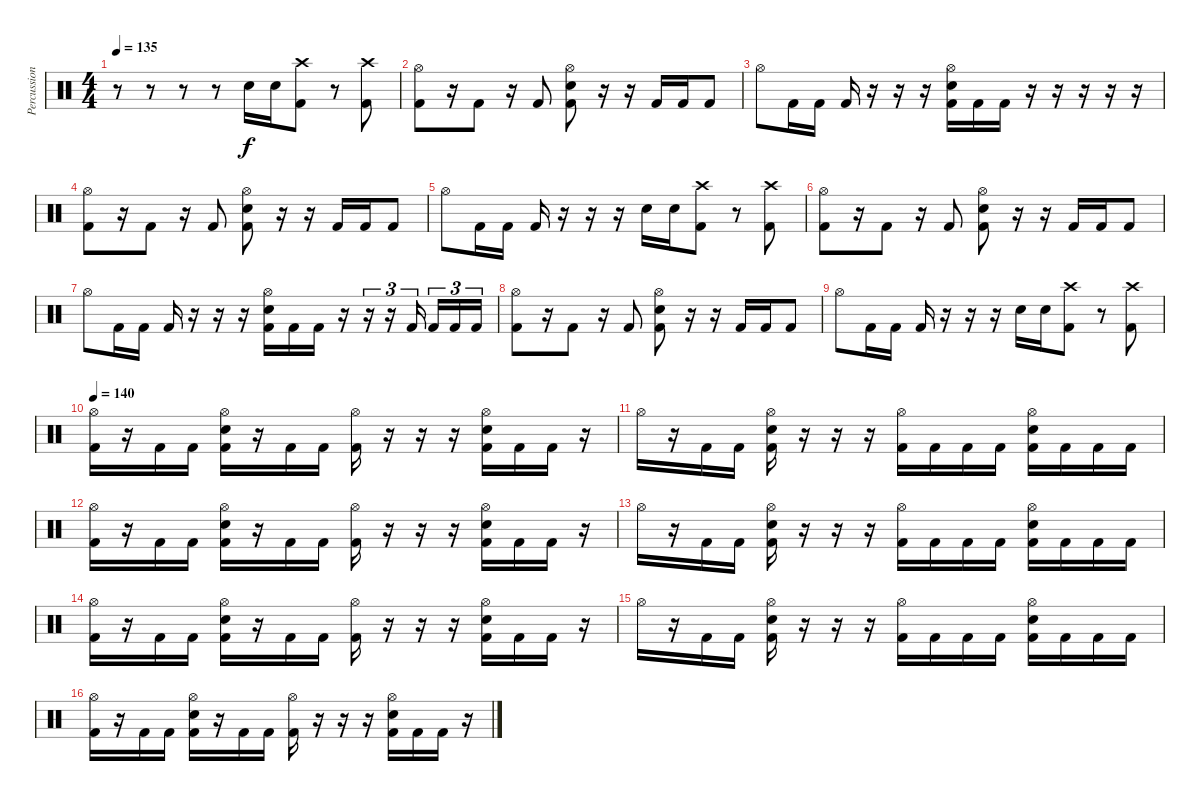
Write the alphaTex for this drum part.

\track ("Percussion" "Percussion") {instrument percussion}
\staff {score}
\articulation defaults
\ts (4 4)
\tempo 135
\clef neutral
\ks c
r.8{dy f} r.8 r.8 r.8 "Electric Snare (hit)".16 "Electric Snare (hit)".16 ("Crash high (hit)" "Kick (hit) 2").8 r.8 ("Crash high (hit)" "Kick (hit) 2").8 |
("Hi-Hat (open)" "Kick (hit) 2").8 r.16 "Kick (hit) 2".8 r.16 "Kick (hit) 2".8 ("Hi-Hat (open)" "Electric Snare (hit)" "Kick (hit) 2").8 r.16 r.16 "Kick (hit) 2".16 "Kick (hit) 2".16 "Kick (hit) 2".8 |
"Hi-Hat (open)".8 "Kick (hit) 2".16 "Kick (hit) 2".16 "Kick (hit) 2".16 r.16 r.16 r.16 ("Hi-Hat (open)" "Electric Snare (hit)" "Kick (hit) 2").16 "Kick (hit) 2".16 "Kick (hit) 2".16 r.16 r.16 r.16 r.16 r.16 |
("Hi-Hat (open)" "Kick (hit) 2").8 r.16 "Kick (hit) 2".8 r.16 "Kick (hit) 2".8 ("Hi-Hat (open)" "Electric Snare (hit)" "Kick (hit) 2").8 r.16 r.16 "Kick (hit) 2".16 "Kick (hit) 2".16 "Kick (hit) 2".8 |
"Hi-Hat (open)".8 "Kick (hit) 2".16 "Kick (hit) 2".16 "Kick (hit) 2".16 r.16 r.16 r.16 "Electric Snare (hit)".16 "Electric Snare (hit)".16 ("Crash high (hit)" "Kick (hit) 2").8 r.8 ("Crash high (hit)" "Kick (hit) 2").8 |
("Hi-Hat (open)" "Kick (hit) 2").8 r.16 "Kick (hit) 2".8 r.16 "Kick (hit) 2".8 ("Hi-Hat (open)" "Electric Snare (hit)" "Kick (hit) 2").8 r.16 r.16 "Kick (hit) 2".16 "Kick (hit) 2".16 "Kick (hit) 2".8 |
"Hi-Hat (open)".8 "Kick (hit) 2".16 "Kick (hit) 2".16 "Kick (hit) 2".16 r.16 r.16 r.16 ("Hi-Hat (open)" "Electric Snare (hit)" "Kick (hit) 2").16 "Kick (hit) 2".16 "Kick (hit) 2".16 r.16 r.16{tu (3 2)} r.16{tu (3 2)} "Kick (hit) 2".16{tu (3 2)} "Kick (hit) 2".16{tu (3 2)} "Kick (hit) 2".16{tu (3 2)} "Kick (hit) 2".16{tu (3 2)} |
("Hi-Hat (open)" "Kick (hit) 2").8 r.16 "Kick (hit) 2".8 r.16 "Kick (hit) 2".8 ("Hi-Hat (open)" "Electric Snare (hit)" "Kick (hit) 2").8 r.16 r.16 "Kick (hit) 2".16 "Kick (hit) 2".16 "Kick (hit) 2".8 |
"Hi-Hat (open)".8 "Kick (hit) 2".16 "Kick (hit) 2".16 "Kick (hit) 2".16 r.16 r.16 r.16 "Electric Snare (hit)".16 "Electric Snare (hit)".16 ("Crash high (hit)" "Kick (hit) 2").8 r.8 ("Crash high (hit)" "Kick (hit) 2").8 |
\tempo 140
("Hi-Hat (open)" "Kick (hit) 2").16 r.16 "Kick (hit) 2".16 "Kick (hit) 2".16 ("Hi-Hat (open)" "Electric Snare (hit)" "Kick (hit) 2").16 r.16 "Kick (hit) 2".16 "Kick (hit) 2".16 ("Hi-Hat (open)" "Kick (hit) 2").16 r.16 r.16 r.16 ("Hi-Hat (open)" "Electric Snare (hit)" "Kick (hit) 2").16 "Kick (hit) 2".16 "Kick (hit) 2".16 r.16 |
"Hi-Hat (open)".16 r.16 "Kick (hit) 2".16 "Kick (hit) 2".16 ("Hi-Hat (open)" "Electric Snare (hit)" "Kick (hit) 2").16 r.16 r.16 r.16 ("Hi-Hat (open)" "Kick (hit) 2").16 "Kick (hit) 2".16 "Kick (hit) 2".16 "Kick (hit) 2".16 ("Hi-Hat (open)" "Electric Snare (hit)" "Kick (hit) 2").16 "Kick (hit) 2".16 "Kick (hit) 2".16 "Kick (hit) 2".16 |
("Hi-Hat (open)" "Kick (hit) 2").16 r.16 "Kick (hit) 2".16 "Kick (hit) 2".16 ("Hi-Hat (open)" "Electric Snare (hit)" "Kick (hit) 2").16 r.16 "Kick (hit) 2".16 "Kick (hit) 2".16 ("Hi-Hat (open)" "Kick (hit) 2").16 r.16 r.16 r.16 ("Hi-Hat (open)" "Electric Snare (hit)" "Kick (hit) 2").16 "Kick (hit) 2".16 "Kick (hit) 2".16 r.16 |
"Hi-Hat (open)".16 r.16 "Kick (hit) 2".16 "Kick (hit) 2".16 ("Hi-Hat (open)" "Electric Snare (hit)" "Kick (hit) 2").16 r.16 r.16 r.16 ("Hi-Hat (open)" "Kick (hit) 2").16 "Kick (hit) 2".16 "Kick (hit) 2".16 "Kick (hit) 2".16 ("Hi-Hat (open)" "Electric Snare (hit)" "Kick (hit) 2").16 "Kick (hit) 2".16 "Kick (hit) 2".16 "Kick (hit) 2".16 |
("Hi-Hat (open)" "Kick (hit) 2").16 r.16 "Kick (hit) 2".16 "Kick (hit) 2".16 ("Hi-Hat (open)" "Electric Snare (hit)" "Kick (hit) 2").16 r.16 "Kick (hit) 2".16 "Kick (hit) 2".16 ("Hi-Hat (open)" "Kick (hit) 2").16 r.16 r.16 r.16 ("Hi-Hat (open)" "Electric Snare (hit)" "Kick (hit) 2").16 "Kick (hit) 2".16 "Kick (hit) 2".16 r.16 |
"Hi-Hat (open)".16 r.16 "Kick (hit) 2".16 "Kick (hit) 2".16 ("Hi-Hat (open)" "Electric Snare (hit)" "Kick (hit) 2").16 r.16 r.16 r.16 ("Hi-Hat (open)" "Kick (hit) 2").16 "Kick (hit) 2".16 "Kick (hit) 2".16 "Kick (hit) 2".16 ("Hi-Hat (open)" "Electric Snare (hit)" "Kick (hit) 2").16 "Kick (hit) 2".16 "Kick (hit) 2".16 "Kick (hit) 2".16 |
("Hi-Hat (open)" "Kick (hit) 2").16 r.16 "Kick (hit) 2".16 "Kick (hit) 2".16 ("Hi-Hat (open)" "Electric Snare (hit)" "Kick (hit) 2").16 r.16 "Kick (hit) 2".16 "Kick (hit) 2".16 ("Hi-Hat (open)" "Kick (hit) 2").16 r.16 r.16 r.16 ("Hi-Hat (open)" "Electric Snare (hit)" "Kick (hit) 2").16 "Kick (hit) 2".16 "Kick (hit) 2".16 r.16
